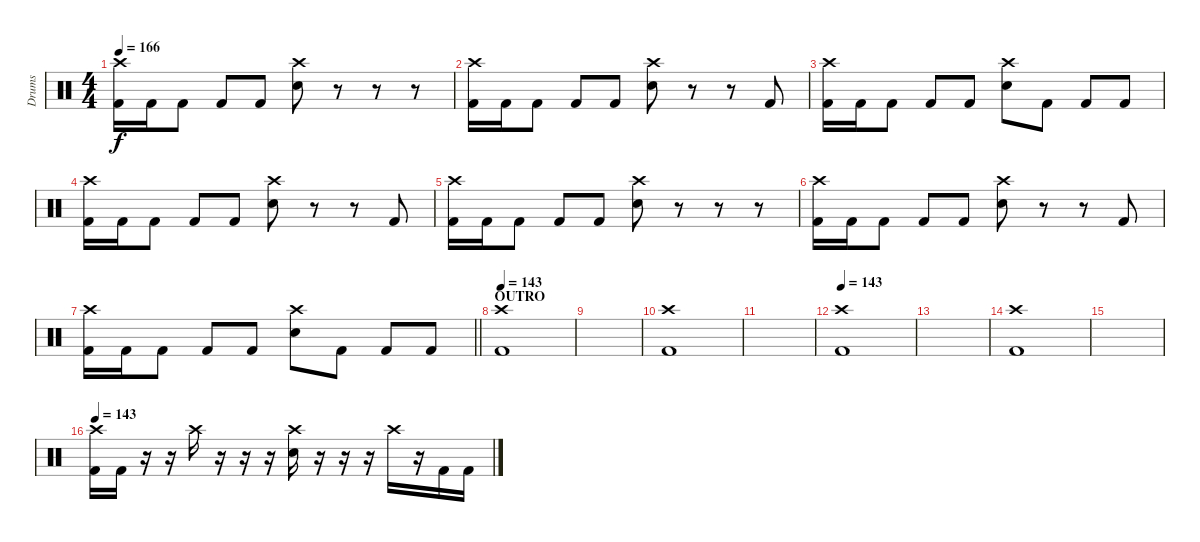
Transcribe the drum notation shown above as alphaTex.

\track ("Drums" "Drums") {instrument percussion}
\staff {score}
\articulation defaults
\ts (4 4)
\tempo 166
\clef neutral
\ks c
("Crash high (hit)" "Kick (hit) 2").16{dy f} "Kick (hit) 2".16 "Kick (hit) 2".8 "Kick (hit) 2".8 "Kick (hit) 2".8 ("Crash high (hit)" "Snare (hit) 2").8 r.8 r.8 r.8 |
("Crash high (hit)" "Kick (hit) 2").16 "Kick (hit) 2".16 "Kick (hit) 2".8 "Kick (hit) 2".8 "Kick (hit) 2".8 ("Crash high (hit)" "Snare (hit) 2").8 r.8 r.8 "Kick (hit) 2".8 |
("Crash high (hit)" "Kick (hit) 2").16 "Kick (hit) 2".16 "Kick (hit) 2".8 "Kick (hit) 2".8 "Kick (hit) 2".8 ("Crash high (hit)" "Snare (hit) 2").8 "Kick (hit) 2".8 "Kick (hit) 2".8 "Kick (hit) 2".8 |
("Crash high (hit)" "Kick (hit) 2").16 "Kick (hit) 2".16 "Kick (hit) 2".8 "Kick (hit) 2".8 "Kick (hit) 2".8 ("Crash high (hit)" "Snare (hit) 2").8 r.8 r.8 "Kick (hit) 2".8 |
("Crash high (hit)" "Kick (hit) 2").16 "Kick (hit) 2".16 "Kick (hit) 2".8 "Kick (hit) 2".8 "Kick (hit) 2".8 ("Crash high (hit)" "Snare (hit) 2").8 r.8 r.8 r.8 |
("Crash high (hit)" "Kick (hit) 2").16 "Kick (hit) 2".16 "Kick (hit) 2".8 "Kick (hit) 2".8 "Kick (hit) 2".8 ("Crash high (hit)" "Snare (hit) 2").8 r.8 r.8 "Kick (hit) 2".8 |
\barLineRight lightlight
("Crash high (hit)" "Kick (hit) 2").16 "Kick (hit) 2".16 "Kick (hit) 2".8 "Kick (hit) 2".8 "Kick (hit) 2".8 ("Crash high (hit)" "Snare (hit) 2").8 "Kick (hit) 2".8 "Kick (hit) 2".8 "Kick (hit) 2".8 |
\section ("" "OUTRO")
\tempo 143
("Crash high (hit)" "Kick (hit) 2").1 |
|
("Crash high (hit)" "Kick (hit) 2").1 |
|
\tempo 143
("Crash high (hit)" "Kick (hit) 2").1 |
|
("Crash high (hit)" "Kick (hit) 2").1 |
|
\tempo 143
("Crash high (hit)" "Kick (hit) 2").16 "Kick (hit) 2".16 r.16 r.16 "Crash high (hit)".16 r.16 r.16 r.16 ("Crash high (hit)" "Snare (hit) 2").16 r.16 r.16 r.16 "Crash high (hit)".16 r.16 "Kick (hit) 2".16 "Kick (hit) 2".16
